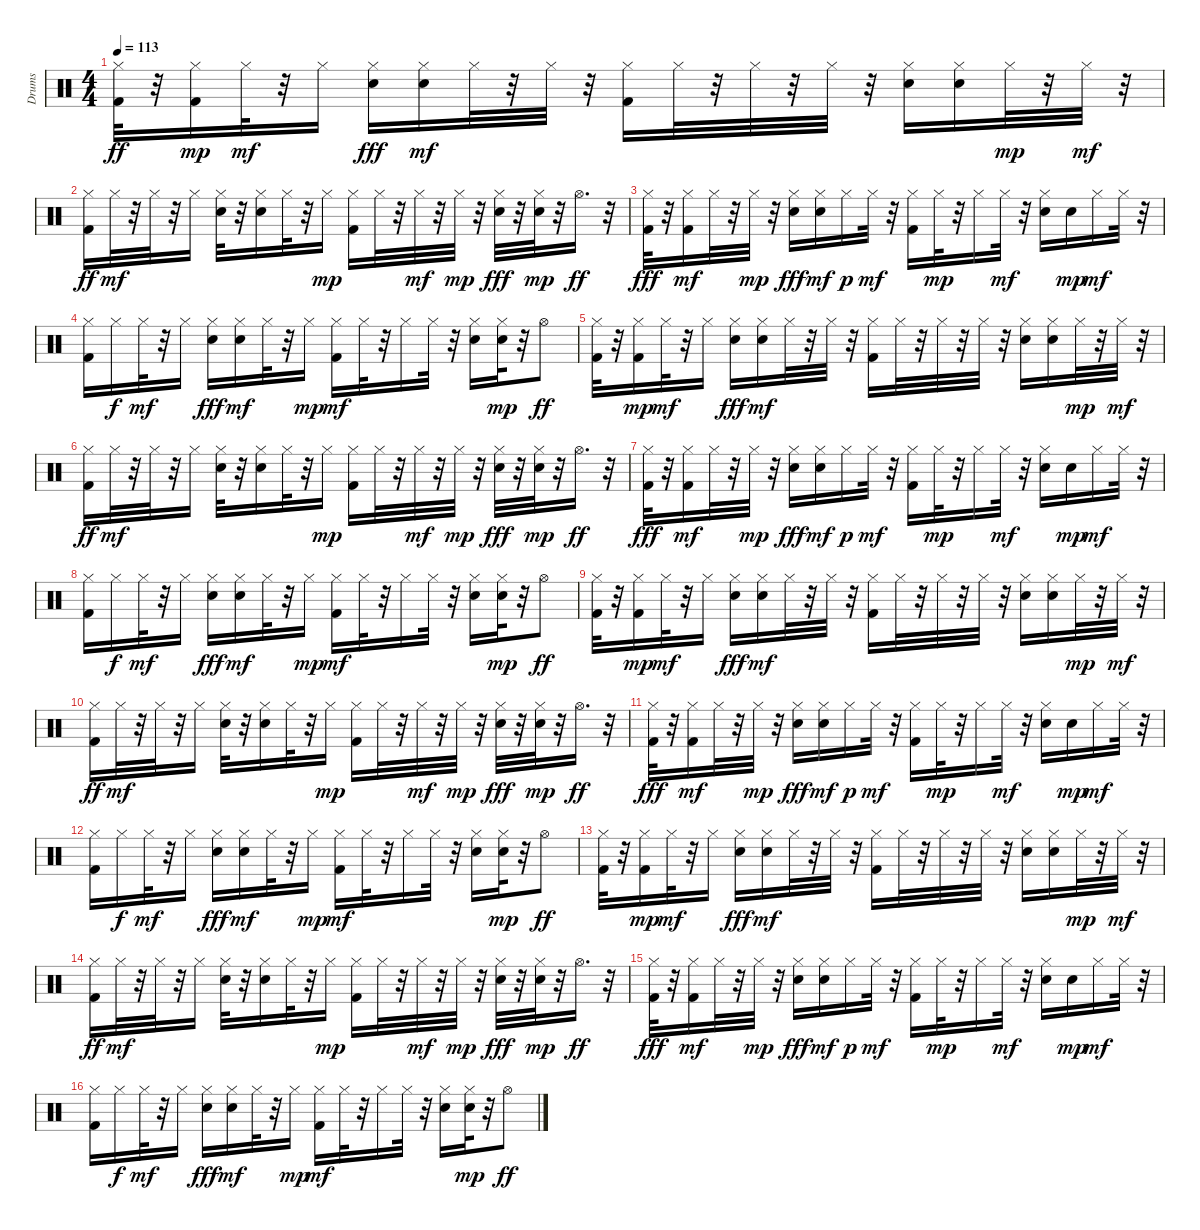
\track ("Drums" "Drums") {instrument percussion}
\staff {score}
\articulation defaults
\ts (4 4)
\tempo 113
\clef neutral
\ks c
("Kick (hit) 2" "Hi-Hat (closed)").32{dy ff} r.32 ("Kick (hit) 2" "Hi-Hat (closed)").16{dy mp} "Hi-Hat (closed)".32{dy mf} r.32 "Hi-Hat (closed)".16 ("Electric Snare (hit)" "Hi-Hat (closed)").16{dy fff} ("Electric Snare (hit)" "Hi-Hat (closed)").16{dy mf} "Hi-Hat (closed)".32 r.32 "Hi-Hat (closed)".32 r.32 ("Kick (hit) 2" "Hi-Hat (closed)").16 "Hi-Hat (closed)".32 r.32 "Hi-Hat (closed)".32 r.32 "Hi-Hat (closed)".32 r.32 ("Electric Snare (hit)" "Hi-Hat (closed)").16 ("Electric Snare (hit)" "Hi-Hat (closed)").16 "Hi-Hat (closed)".32{dy mp} r.32 "Hi-Hat (closed)".32{dy mf} r.32 |
("Kick (hit) 2" "Hi-Hat (closed)").16{dy ff} "Hi-Hat (closed)".32{dy mf} r.32 "Hi-Hat (closed)".32 r.32 "Hi-Hat (closed)".16 ("Electric Snare (hit)" "Hi-Hat (closed)").32 r.32 ("Electric Snare (hit)" "Hi-Hat (closed)").16 "Hi-Hat (closed)".32 r.32 "Hi-Hat (closed)".16{dy mp} ("Kick (hit) 2" "Hi-Hat (closed)").16 "Hi-Hat (closed)".32 r.32 "Hi-Hat (closed)".32{dy mf} r.32 "Hi-Hat (closed)".32{dy mp} r.32 ("Electric Snare (hit)" "Hi-Hat (closed)").32{dy fff} r.32 ("Electric Snare (hit)" "Hi-Hat (closed)").32{dy mp} r.32 "Hi-Hat (open)".16{d dy ff} r.32 |
("Kick (hit) 2" "Hi-Hat (closed)").32{dy fff} r.32 ("Kick (hit) 2" "Hi-Hat (closed)").16{dy mf} "Hi-Hat (closed)".32 r.32 "Hi-Hat (closed)".32{dy mp} r.32 ("Electric Snare (hit)" "Hi-Hat (closed)").16{dy fff} ("Electric Snare (hit)" "Hi-Hat (closed)").16{dy mf} "Hi-Hat (closed)".16{dy p} "Hi-Hat (closed)".32{dy mf} r.32 ("Kick (hit) 2" "Hi-Hat (closed)").16 "Hi-Hat (closed)".32{dy mp} r.32 "Hi-Hat (closed)".16 "Hi-Hat (closed)".32{dy mf} r.32 ("Electric Snare (hit)" "Hi-Hat (closed)").16 "Electric Snare (hit)".16{dy mp} "Hi-Hat (closed)".16{dy mf} "Hi-Hat (closed)".32 r.32 |
("Kick (hit) 2" "Hi-Hat (closed)").16 "Hi-Hat (closed)".16{dy f} "Hi-Hat (closed)".32{dy mf} r.32 "Hi-Hat (closed)".16 ("Electric Snare (hit)" "Hi-Hat (closed)").16{dy fff} ("Electric Snare (hit)" "Hi-Hat (closed)").16{dy mf} "Hi-Hat (closed)".32 r.32 "Hi-Hat (closed)".16{dy mp} ("Kick (hit) 2" "Hi-Hat (closed)").16{dy mf} "Hi-Hat (closed)".32 r.32 "Hi-Hat (closed)".16 "Hi-Hat (closed)".32 r.32 ("Electric Snare (hit)" "Hi-Hat (closed)").16 ("Electric Snare (hit)" "Hi-Hat (closed)").32{dy mp} r.32 "Hi-Hat (open)".8{dy ff} |
("Kick (hit) 2" "Hi-Hat (closed)").32 r.32 ("Kick (hit) 2" "Hi-Hat (closed)").16{dy mp} "Hi-Hat (closed)".32{dy mf} r.32 "Hi-Hat (closed)".16 ("Electric Snare (hit)" "Hi-Hat (closed)").16{dy fff} ("Electric Snare (hit)" "Hi-Hat (closed)").16{dy mf} "Hi-Hat (closed)".32 r.32 "Hi-Hat (closed)".32 r.32 ("Kick (hit) 2" "Hi-Hat (closed)").16 "Hi-Hat (closed)".32 r.32 "Hi-Hat (closed)".32 r.32 "Hi-Hat (closed)".32 r.32 ("Electric Snare (hit)" "Hi-Hat (closed)").16 ("Electric Snare (hit)" "Hi-Hat (closed)").16 "Hi-Hat (closed)".32{dy mp} r.32 "Hi-Hat (closed)".32{dy mf} r.32 |
("Kick (hit) 2" "Hi-Hat (closed)").16{dy ff} "Hi-Hat (closed)".32{dy mf} r.32 "Hi-Hat (closed)".32 r.32 "Hi-Hat (closed)".16 ("Electric Snare (hit)" "Hi-Hat (closed)").32 r.32 ("Electric Snare (hit)" "Hi-Hat (closed)").16 "Hi-Hat (closed)".32 r.32 "Hi-Hat (closed)".16{dy mp} ("Kick (hit) 2" "Hi-Hat (closed)").16 "Hi-Hat (closed)".32 r.32 "Hi-Hat (closed)".32{dy mf} r.32 "Hi-Hat (closed)".32{dy mp} r.32 ("Electric Snare (hit)" "Hi-Hat (closed)").32{dy fff} r.32 ("Electric Snare (hit)" "Hi-Hat (closed)").32{dy mp} r.32 "Hi-Hat (open)".16{d dy ff} r.32 |
("Kick (hit) 2" "Hi-Hat (closed)").32{dy fff} r.32 ("Kick (hit) 2" "Hi-Hat (closed)").16{dy mf} "Hi-Hat (closed)".32 r.32 "Hi-Hat (closed)".32{dy mp} r.32 ("Electric Snare (hit)" "Hi-Hat (closed)").16{dy fff} ("Electric Snare (hit)" "Hi-Hat (closed)").16{dy mf} "Hi-Hat (closed)".16{dy p} "Hi-Hat (closed)".32{dy mf} r.32 ("Kick (hit) 2" "Hi-Hat (closed)").16 "Hi-Hat (closed)".32{dy mp} r.32 "Hi-Hat (closed)".16 "Hi-Hat (closed)".32{dy mf} r.32 ("Electric Snare (hit)" "Hi-Hat (closed)").16 "Electric Snare (hit)".16{dy mp} "Hi-Hat (closed)".16{dy mf} "Hi-Hat (closed)".32 r.32 |
("Kick (hit) 2" "Hi-Hat (closed)").16 "Hi-Hat (closed)".16{dy f} "Hi-Hat (closed)".32{dy mf} r.32 "Hi-Hat (closed)".16 ("Electric Snare (hit)" "Hi-Hat (closed)").16{dy fff} ("Electric Snare (hit)" "Hi-Hat (closed)").16{dy mf} "Hi-Hat (closed)".32 r.32 "Hi-Hat (closed)".16{dy mp} ("Kick (hit) 2" "Hi-Hat (closed)").16{dy mf} "Hi-Hat (closed)".32 r.32 "Hi-Hat (closed)".16 "Hi-Hat (closed)".32 r.32 ("Electric Snare (hit)" "Hi-Hat (closed)").16 ("Electric Snare (hit)" "Hi-Hat (closed)").32{dy mp} r.32 "Hi-Hat (open)".8{dy ff} |
("Kick (hit) 2" "Hi-Hat (closed)").32 r.32 ("Kick (hit) 2" "Hi-Hat (closed)").16{dy mp} "Hi-Hat (closed)".32{dy mf} r.32 "Hi-Hat (closed)".16 ("Electric Snare (hit)" "Hi-Hat (closed)").16{dy fff} ("Electric Snare (hit)" "Hi-Hat (closed)").16{dy mf} "Hi-Hat (closed)".32 r.32 "Hi-Hat (closed)".32 r.32 ("Kick (hit) 2" "Hi-Hat (closed)").16 "Hi-Hat (closed)".32 r.32 "Hi-Hat (closed)".32 r.32 "Hi-Hat (closed)".32 r.32 ("Electric Snare (hit)" "Hi-Hat (closed)").16 ("Electric Snare (hit)" "Hi-Hat (closed)").16 "Hi-Hat (closed)".32{dy mp} r.32 "Hi-Hat (closed)".32{dy mf} r.32 |
("Kick (hit) 2" "Hi-Hat (closed)").16{dy ff} "Hi-Hat (closed)".32{dy mf} r.32 "Hi-Hat (closed)".32 r.32 "Hi-Hat (closed)".16 ("Electric Snare (hit)" "Hi-Hat (closed)").32 r.32 ("Electric Snare (hit)" "Hi-Hat (closed)").16 "Hi-Hat (closed)".32 r.32 "Hi-Hat (closed)".16{dy mp} ("Kick (hit) 2" "Hi-Hat (closed)").16 "Hi-Hat (closed)".32 r.32 "Hi-Hat (closed)".32{dy mf} r.32 "Hi-Hat (closed)".32{dy mp} r.32 ("Electric Snare (hit)" "Hi-Hat (closed)").32{dy fff} r.32 ("Electric Snare (hit)" "Hi-Hat (closed)").32{dy mp} r.32 "Hi-Hat (open)".16{d dy ff} r.32 |
("Kick (hit) 2" "Hi-Hat (closed)").32{dy fff} r.32 ("Kick (hit) 2" "Hi-Hat (closed)").16{dy mf} "Hi-Hat (closed)".32 r.32 "Hi-Hat (closed)".32{dy mp} r.32 ("Electric Snare (hit)" "Hi-Hat (closed)").16{dy fff} ("Electric Snare (hit)" "Hi-Hat (closed)").16{dy mf} "Hi-Hat (closed)".16{dy p} "Hi-Hat (closed)".32{dy mf} r.32 ("Kick (hit) 2" "Hi-Hat (closed)").16 "Hi-Hat (closed)".32{dy mp} r.32 "Hi-Hat (closed)".16 "Hi-Hat (closed)".32{dy mf} r.32 ("Electric Snare (hit)" "Hi-Hat (closed)").16 "Electric Snare (hit)".16{dy mp} "Hi-Hat (closed)".16{dy mf} "Hi-Hat (closed)".32 r.32 |
("Kick (hit) 2" "Hi-Hat (closed)").16 "Hi-Hat (closed)".16{dy f} "Hi-Hat (closed)".32{dy mf} r.32 "Hi-Hat (closed)".16 ("Electric Snare (hit)" "Hi-Hat (closed)").16{dy fff} ("Electric Snare (hit)" "Hi-Hat (closed)").16{dy mf} "Hi-Hat (closed)".32 r.32 "Hi-Hat (closed)".16{dy mp} ("Kick (hit) 2" "Hi-Hat (closed)").16{dy mf} "Hi-Hat (closed)".32 r.32 "Hi-Hat (closed)".16 "Hi-Hat (closed)".32 r.32 ("Electric Snare (hit)" "Hi-Hat (closed)").16 ("Electric Snare (hit)" "Hi-Hat (closed)").32{dy mp} r.32 "Hi-Hat (open)".8{dy ff} |
("Kick (hit) 2" "Hi-Hat (closed)").32 r.32 ("Kick (hit) 2" "Hi-Hat (closed)").16{dy mp} "Hi-Hat (closed)".32{dy mf} r.32 "Hi-Hat (closed)".16 ("Electric Snare (hit)" "Hi-Hat (closed)").16{dy fff} ("Electric Snare (hit)" "Hi-Hat (closed)").16{dy mf} "Hi-Hat (closed)".32 r.32 "Hi-Hat (closed)".32 r.32 ("Kick (hit) 2" "Hi-Hat (closed)").16 "Hi-Hat (closed)".32 r.32 "Hi-Hat (closed)".32 r.32 "Hi-Hat (closed)".32 r.32 ("Electric Snare (hit)" "Hi-Hat (closed)").16 ("Electric Snare (hit)" "Hi-Hat (closed)").16 "Hi-Hat (closed)".32{dy mp} r.32 "Hi-Hat (closed)".32{dy mf} r.32 |
("Kick (hit) 2" "Hi-Hat (closed)").16{dy ff} "Hi-Hat (closed)".32{dy mf} r.32 "Hi-Hat (closed)".32 r.32 "Hi-Hat (closed)".16 ("Electric Snare (hit)" "Hi-Hat (closed)").32 r.32 ("Electric Snare (hit)" "Hi-Hat (closed)").16 "Hi-Hat (closed)".32 r.32 "Hi-Hat (closed)".16{dy mp} ("Kick (hit) 2" "Hi-Hat (closed)").16 "Hi-Hat (closed)".32 r.32 "Hi-Hat (closed)".32{dy mf} r.32 "Hi-Hat (closed)".32{dy mp} r.32 ("Electric Snare (hit)" "Hi-Hat (closed)").32{dy fff} r.32 ("Electric Snare (hit)" "Hi-Hat (closed)").32{dy mp} r.32 "Hi-Hat (open)".16{d dy ff} r.32 |
("Kick (hit) 2" "Hi-Hat (closed)").32{dy fff} r.32 ("Kick (hit) 2" "Hi-Hat (closed)").16{dy mf} "Hi-Hat (closed)".32 r.32 "Hi-Hat (closed)".32{dy mp} r.32 ("Electric Snare (hit)" "Hi-Hat (closed)").16{dy fff} ("Electric Snare (hit)" "Hi-Hat (closed)").16{dy mf} "Hi-Hat (closed)".16{dy p} "Hi-Hat (closed)".32{dy mf} r.32 ("Kick (hit) 2" "Hi-Hat (closed)").16 "Hi-Hat (closed)".32{dy mp} r.32 "Hi-Hat (closed)".16 "Hi-Hat (closed)".32{dy mf} r.32 ("Electric Snare (hit)" "Hi-Hat (closed)").16 "Electric Snare (hit)".16{dy mp} "Hi-Hat (closed)".16{dy mf} "Hi-Hat (closed)".32 r.32 |
("Kick (hit) 2" "Hi-Hat (closed)").16 "Hi-Hat (closed)".16{dy f} "Hi-Hat (closed)".32{dy mf} r.32 "Hi-Hat (closed)".16 ("Electric Snare (hit)" "Hi-Hat (closed)").16{dy fff} ("Electric Snare (hit)" "Hi-Hat (closed)").16{dy mf} "Hi-Hat (closed)".32 r.32 "Hi-Hat (closed)".16{dy mp} ("Kick (hit) 2" "Hi-Hat (closed)").16{dy mf} "Hi-Hat (closed)".32 r.32 "Hi-Hat (closed)".16 "Hi-Hat (closed)".32 r.32 ("Electric Snare (hit)" "Hi-Hat (closed)").16 ("Electric Snare (hit)" "Hi-Hat (closed)").32{dy mp} r.32 "Hi-Hat (open)".8{dy ff}
